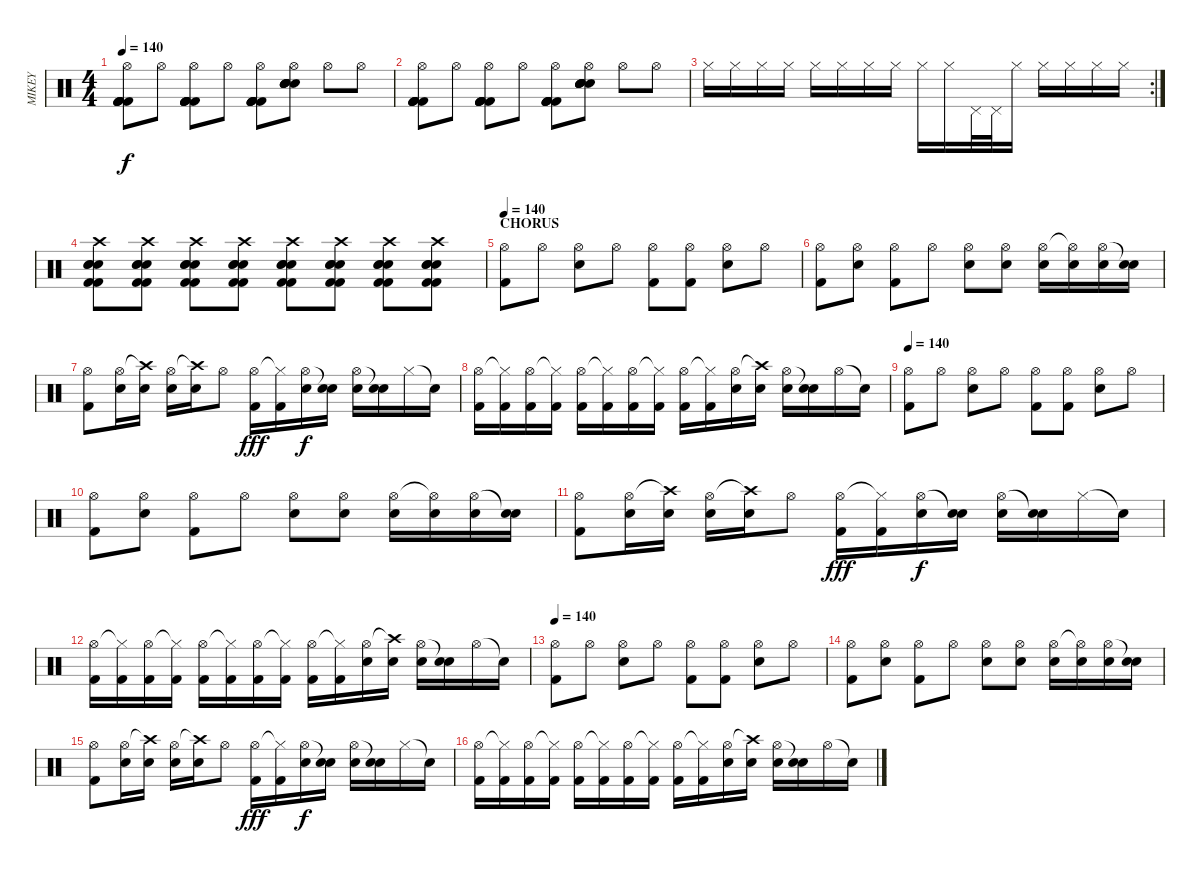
\track ("MIKEY" "MIKEY") {instrument percussion}
\staff {score}
\articulation defaults
\ts (4 4)
\tempo 140
\clef neutral
\ks c
("Kick (hit) 2" "Kick (hit) 2" "Kick (hit) 2" "Kick (hit) 2" "Kick (hit) 2" "Hi-Hat (open)").8{dy f} "Hi-Hat (open)".8 ("Kick (hit) 2" "Kick (hit) 2" "Kick (hit) 2" "Kick (hit) 2" "Kick (hit) 2" "Hi-Hat (open)").8 "Hi-Hat (open)".8 ("Kick (hit) 2" "Kick (hit) 2" "Kick (hit) 2" "Kick (hit) 2" "Kick (hit) 2" "Hi-Hat (open)").8 ("Snare (hit) 2" "Snare (hit) 2" "Snare (hit) 2" "Snare (hit) 2" "Snare (hit) 2" "Hi-Hat (open)").8 "Hi-Hat (open)".8 "Hi-Hat (open)".8 |
("Kick (hit) 2" "Kick (hit) 2" "Kick (hit) 2" "Kick (hit) 2" "Kick (hit) 2" "Hi-Hat (open)").8 "Hi-Hat (open)".8 ("Kick (hit) 2" "Kick (hit) 2" "Kick (hit) 2" "Kick (hit) 2" "Kick (hit) 2" "Hi-Hat (open)").8 "Hi-Hat (open)".8 ("Kick (hit) 2" "Kick (hit) 2" "Kick (hit) 2" "Kick (hit) 2" "Kick (hit) 2" "Hi-Hat (open)").8 ("Snare (hit) 2" "Snare (hit) 2" "Snare (hit) 2" "Snare (hit) 2" "Snare (hit) 2" "Hi-Hat (open)").8 "Hi-Hat (open)".8 "Hi-Hat (open)".8 |
\rc 2 "Hi-Hat (closed)".16 "Hi-Hat (closed)".16 "Hi-Hat (closed)".16 "Hi-Hat (closed)".16 "Hi-Hat (closed)".16 "Hi-Hat (closed)".16 "Hi-Hat (closed)".16 "Hi-Hat (closed)".16 "Hi-Hat (closed)".16 "Hi-Hat (closed)".16 "Pedal Hi-Hat (hit)".32 "Pedal Hi-Hat (hit)".32 "Hi-Hat (closed)".16 "Hi-Hat (closed)".16 "Hi-Hat (closed)".16 "Hi-Hat (closed)".16 "Hi-Hat (closed)".16
|
("Snare (hit) 2" "Snare (hit) 2" "Kick (hit) 2" "Kick (hit) 2" "Electric Snare (hit)" "Crash high (hit)").8 ("Snare (hit) 2" "Snare (hit) 2" "Kick (hit) 2" "Kick (hit) 2" "Electric Snare (hit)" "Crash high (hit)").8 ("Snare (hit) 2" "Snare (hit) 2" "Kick (hit) 2" "Kick (hit) 2" "Electric Snare (hit)" "Crash high (hit)").8 ("Snare (hit) 2" "Snare (hit) 2" "Kick (hit) 2" "Kick (hit) 2" "Electric Snare (hit)" "Crash high (hit)").8 ("Snare (hit) 2" "Snare (hit) 2" "Kick (hit) 2" "Kick (hit) 2" "Electric Snare (hit)" "Crash high (hit)").8 ("Snare (hit) 2" "Snare (hit) 2" "Kick (hit) 2" "Kick (hit) 2" "Electric Snare (hit)" "Crash high (hit)").8 ("Snare (hit) 2" "Snare (hit) 2" "Kick (hit) 2" "Kick (hit) 2" "Electric Snare (hit)" "Crash high (hit)").8 ("Snare (hit) 2" "Snare (hit) 2" "Kick (hit) 2" "Kick (hit) 2" "Electric Snare (hit)" "Crash high (hit)").8 |
\section ("" "CHORUS")
\tempo 140
("Hi-Hat (open)" "Kick (hit) 2").8 "Hi-Hat (open)".8 ("Hi-Hat (open)" "Electric Snare (hit)").8 "Hi-Hat (open)".8 ("Hi-Hat (open)" "Kick (hit) 2").8 ("Hi-Hat (open)" "Kick (hit) 2").8 ("Hi-Hat (open)" "Electric Snare (hit)").8 "Hi-Hat (open)".8 |
("Hi-Hat (open)" "Kick (hit) 2").8 ("Hi-Hat (open)" "Electric Snare (hit)").8 ("Hi-Hat (open)" "Kick (hit) 2").8 "Hi-Hat (open)".8 ("Hi-Hat (open)" "Electric Snare (hit)").8 ("Hi-Hat (open)" "Electric Snare (hit)").8 ("Hi-Hat (open)" "Electric Snare (hit)").16 ("Hi-Hat (open)"{t} "Electric Snare (hit)").16 ("Hi-Hat (open)" "Electric Snare (hit)").16 ("Snare (hit)"{t} "Electric Snare (hit)").16 |
("Hi-Hat (open)" "Kick (hit) 2").8 ("Hi-Hat (open)" "Electric Snare (hit)").16 ("Crash high (hit)"{t} "Electric Snare (hit)").16 ("Hi-Hat (open)" "Electric Snare (hit)").16 ("Crash high (hit)"{t} "Electric Snare (hit)").16 "Hi-Hat (open)".8 ("Hi-Hat (open)" "Kick (hit) 2").16{dy fff} ("Hi-Hat (closed)"{t} "Kick (hit) 2").16 ("Hi-Hat (open)" "Electric Snare (hit)").16{dy f} ("Snare (hit)"{t} "Electric Snare (hit)").16 ("Hi-Hat (open)" "Electric Snare (hit)").16 ("Snare (hit)"{t} "Electric Snare (hit)").16 "Hi-Hat (closed)".16 "Snare (hit)"{t}.16 |
("Hi-Hat (open)" "Kick (hit) 2").16 ("Hi-Hat (closed)"{t} "Kick (hit) 2").16 ("Hi-Hat (open)" "Kick (hit) 2").16 ("Hi-Hat (closed)"{t} "Kick (hit) 2").16 ("Hi-Hat (open)" "Kick (hit) 2").16 ("Hi-Hat (closed)"{t} "Kick (hit) 2").16 ("Hi-Hat (open)" "Kick (hit) 2").16 ("Hi-Hat (closed)"{t} "Kick (hit) 2").16 ("Hi-Hat (open)" "Kick (hit) 2").16 ("Hi-Hat (closed)"{t} "Kick (hit) 2").16 ("Hi-Hat (open)" "Electric Snare (hit)").16 ("Crash high (hit)"{t} "Electric Snare (hit)").16 ("Hi-Hat (open)" "Electric Snare (hit)").16 ("Snare (hit)"{t} "Electric Snare (hit)").16 "Hi-Hat (open)".16 "Snare (hit)"{t}.16 |
\tempo 140
("Hi-Hat (open)" "Kick (hit) 2").8 "Hi-Hat (open)".8 ("Hi-Hat (open)" "Electric Snare (hit)").8 "Hi-Hat (open)".8 ("Hi-Hat (open)" "Kick (hit) 2").8 ("Hi-Hat (open)" "Kick (hit) 2").8 ("Hi-Hat (open)" "Electric Snare (hit)").8 "Hi-Hat (open)".8 |
("Hi-Hat (open)" "Kick (hit) 2").8 ("Hi-Hat (open)" "Electric Snare (hit)").8 ("Hi-Hat (open)" "Kick (hit) 2").8 "Hi-Hat (open)".8 ("Hi-Hat (open)" "Electric Snare (hit)").8 ("Hi-Hat (open)" "Electric Snare (hit)").8 ("Hi-Hat (open)" "Electric Snare (hit)").16 ("Hi-Hat (open)"{t} "Electric Snare (hit)").16 ("Hi-Hat (open)" "Electric Snare (hit)").16 ("Snare (hit)"{t} "Electric Snare (hit)").16 |
("Hi-Hat (open)" "Kick (hit) 2").8 ("Hi-Hat (open)" "Electric Snare (hit)").16 ("Crash high (hit)"{t} "Electric Snare (hit)").16 ("Hi-Hat (open)" "Electric Snare (hit)").16 ("Crash high (hit)"{t} "Electric Snare (hit)").16 "Hi-Hat (open)".8 ("Hi-Hat (open)" "Kick (hit) 2").16{dy fff} ("Hi-Hat (closed)"{t} "Kick (hit) 2").16 ("Hi-Hat (open)" "Electric Snare (hit)").16{dy f} ("Snare (hit)"{t} "Electric Snare (hit)").16 ("Hi-Hat (open)" "Electric Snare (hit)").16 ("Snare (hit)"{t} "Electric Snare (hit)").16 "Hi-Hat (closed)".16 "Snare (hit)"{t}.16 |
("Hi-Hat (open)" "Kick (hit) 2").16 ("Hi-Hat (closed)"{t} "Kick (hit) 2").16 ("Hi-Hat (open)" "Kick (hit) 2").16 ("Hi-Hat (closed)"{t} "Kick (hit) 2").16 ("Hi-Hat (open)" "Kick (hit) 2").16 ("Hi-Hat (closed)"{t} "Kick (hit) 2").16 ("Hi-Hat (open)" "Kick (hit) 2").16 ("Hi-Hat (closed)"{t} "Kick (hit) 2").16 ("Hi-Hat (open)" "Kick (hit) 2").16 ("Hi-Hat (closed)"{t} "Kick (hit) 2").16 ("Hi-Hat (open)" "Electric Snare (hit)").16 ("Crash high (hit)"{t} "Electric Snare (hit)").16 ("Hi-Hat (open)" "Electric Snare (hit)").16 ("Snare (hit)"{t} "Electric Snare (hit)").16 "Hi-Hat (open)".16 "Snare (hit)"{t}.16 |
\tempo 140
("Hi-Hat (open)" "Kick (hit) 2").8 "Hi-Hat (open)".8 ("Hi-Hat (open)" "Electric Snare (hit)").8 "Hi-Hat (open)".8 ("Hi-Hat (open)" "Kick (hit) 2").8 ("Hi-Hat (open)" "Kick (hit) 2").8 ("Hi-Hat (open)" "Electric Snare (hit)").8 "Hi-Hat (open)".8 |
("Hi-Hat (open)" "Kick (hit) 2").8 ("Hi-Hat (open)" "Electric Snare (hit)").8 ("Hi-Hat (open)" "Kick (hit) 2").8 "Hi-Hat (open)".8 ("Hi-Hat (open)" "Electric Snare (hit)").8 ("Hi-Hat (open)" "Electric Snare (hit)").8 ("Hi-Hat (open)" "Electric Snare (hit)").16 ("Hi-Hat (open)"{t} "Electric Snare (hit)").16 ("Hi-Hat (open)" "Electric Snare (hit)").16 ("Snare (hit)"{t} "Electric Snare (hit)").16 |
("Hi-Hat (open)" "Kick (hit) 2").8 ("Hi-Hat (open)" "Electric Snare (hit)").16 ("Crash high (hit)"{t} "Electric Snare (hit)").16 ("Hi-Hat (open)" "Electric Snare (hit)").16 ("Crash high (hit)"{t} "Electric Snare (hit)").16 "Hi-Hat (open)".8 ("Hi-Hat (open)" "Kick (hit) 2").16{dy fff} ("Hi-Hat (closed)"{t} "Kick (hit) 2").16 ("Hi-Hat (open)" "Electric Snare (hit)").16{dy f} ("Snare (hit)"{t} "Electric Snare (hit)").16 ("Hi-Hat (open)" "Electric Snare (hit)").16 ("Snare (hit)"{t} "Electric Snare (hit)").16 "Hi-Hat (closed)".16 "Snare (hit)"{t}.16 |
("Hi-Hat (open)" "Kick (hit) 2").16 ("Hi-Hat (closed)"{t} "Kick (hit) 2").16 ("Hi-Hat (open)" "Kick (hit) 2").16 ("Hi-Hat (closed)"{t} "Kick (hit) 2").16 ("Hi-Hat (open)" "Kick (hit) 2").16 ("Hi-Hat (closed)"{t} "Kick (hit) 2").16 ("Hi-Hat (open)" "Kick (hit) 2").16 ("Hi-Hat (closed)"{t} "Kick (hit) 2").16 ("Hi-Hat (open)" "Kick (hit) 2").16 ("Hi-Hat (closed)"{t} "Kick (hit) 2").16 ("Hi-Hat (open)" "Electric Snare (hit)").16 ("Crash high (hit)"{t} "Electric Snare (hit)").16 ("Hi-Hat (open)" "Electric Snare (hit)").16 ("Snare (hit)"{t} "Electric Snare (hit)").16 "Hi-Hat (open)".16 "Snare (hit)"{t}.16
